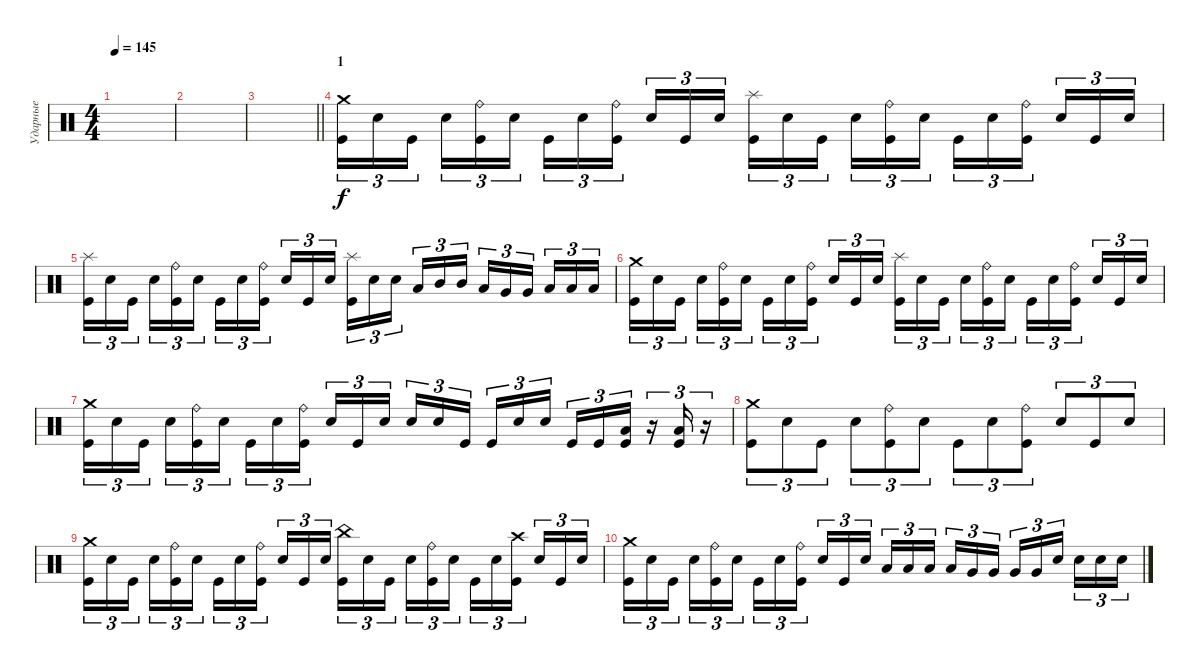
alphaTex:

\track ("Ударные" "Ударные") {instrument percussion}
\staff {score}
\articulation defaults
\ts (4 4)
\tempo 145
\clef neutral
\ks c
|
|
\barLineRight lightlight
|
\section ("" "1")
("Crash medium (hit)" "Kick (hit)").16{tu (3 2)} "Electric Snare (hit)".16{tu (3 2)} "Kick (hit)".16{tu (3 2) beam splitsecondary} "Electric Snare (hit)".16{tu (3 2)} ("Ride (bell)" "Kick (hit)").16{tu (3 2)} "Electric Snare (hit)".16{tu (3 2)} "Kick (hit)".16{tu (3 2)} "Electric Snare (hit)".16{tu (3 2)} ("Ride (bell)" "Kick (hit)").16{tu (3 2) beam splitsecondary} "Electric Snare (hit)".16{tu (3 2)} "Kick (hit)".16{tu (3 2)} "Electric Snare (hit)".16{tu (3 2)} ("Splash (hit)" "Kick (hit)").16{tu (3 2)} "Electric Snare (hit)".16{tu (3 2)} "Kick (hit)".16{tu (3 2) beam splitsecondary} "Electric Snare (hit)".16{tu (3 2)} ("Ride (bell)" "Kick (hit)").16{tu (3 2)} "Electric Snare (hit)".16{tu (3 2)} "Kick (hit)".16{tu (3 2)} "Electric Snare (hit)".16{tu (3 2)} ("Ride (bell)" "Kick (hit)").16{tu (3 2) beam splitsecondary} "Electric Snare (hit)".16{tu (3 2)} "Kick (hit)".16{tu (3 2)} "Electric Snare (hit)".16{tu (3 2)} |
("Splash (hit)" "Kick (hit)").16{tu (3 2)} "Electric Snare (hit)".16{tu (3 2)} "Kick (hit)".16{tu (3 2) beam splitsecondary} "Electric Snare (hit)".16{tu (3 2)} ("Ride (bell)" "Kick (hit)").16{tu (3 2)} "Electric Snare (hit)".16{tu (3 2)} "Kick (hit)".16{tu (3 2)} "Electric Snare (hit)".16{tu (3 2)} ("Ride (bell)" "Kick (hit)").16{tu (3 2) beam splitsecondary} "Electric Snare (hit)".16{tu (3 2)} "Kick (hit)".16{tu (3 2)} "Electric Snare (hit)".16{tu (3 2)} ("Splash (hit)" "Kick (hit)").16{tu (3 2)} "Electric Snare (hit)".16{tu (3 2)} "Electric Snare (hit)".16{tu (3 2) beam splitsecondary} "Low Tom (hit)".16{tu (3 2)} "Mid Tom (hit)".16{tu (3 2)} "Mid Tom (hit)".16{tu (3 2)} "Low Tom (hit)".16{tu (3 2)} "Very Low Tom (hit)".16{tu (3 2)} "Very Low Tom (hit)".16{tu (3 2) beam splitsecondary} "Low Floor Tom (hit)".16{tu (3 2)} "Low Floor Tom (hit)".16{tu (3 2)} "Low Floor Tom (hit)".16{tu (3 2)} |
("Crash medium (hit)" "Kick (hit)").16{tu (3 2)} "Electric Snare (hit)".16{tu (3 2)} "Kick (hit)".16{tu (3 2) beam splitsecondary} "Electric Snare (hit)".16{tu (3 2)} ("Ride (bell)" "Kick (hit)").16{tu (3 2)} "Electric Snare (hit)".16{tu (3 2)} "Kick (hit)".16{tu (3 2)} "Electric Snare (hit)".16{tu (3 2)} ("Ride (bell)" "Kick (hit)").16{tu (3 2) beam splitsecondary} "Electric Snare (hit)".16{tu (3 2)} "Kick (hit)".16{tu (3 2)} "Electric Snare (hit)".16{tu (3 2)} ("Splash (hit)" "Kick (hit)").16{tu (3 2)} "Electric Snare (hit)".16{tu (3 2)} "Kick (hit)".16{tu (3 2) beam splitsecondary} "Electric Snare (hit)".16{tu (3 2)} ("Ride (bell)" "Kick (hit)").16{tu (3 2)} "Electric Snare (hit)".16{tu (3 2)} "Kick (hit)".16{tu (3 2)} "Electric Snare (hit)".16{tu (3 2)} ("Ride (bell)" "Kick (hit)").16{tu (3 2) beam splitsecondary} "Electric Snare (hit)".16{tu (3 2)} "Kick (hit)".16{tu (3 2)} "Electric Snare (hit)".16{tu (3 2)} |
("Crash medium (hit)" "Kick (hit)").16{tu (3 2)} "Electric Snare (hit)".16{tu (3 2)} "Kick (hit)".16{tu (3 2) beam splitsecondary} "Electric Snare (hit)".16{tu (3 2)} ("Ride (bell)" "Kick (hit)").16{tu (3 2)} "Electric Snare (hit)".16{tu (3 2)} "Kick (hit)".16{tu (3 2)} "Electric Snare (hit)".16{tu (3 2)} ("Ride (bell)" "Kick (hit)").16{tu (3 2) beam splitsecondary} "Electric Snare (hit)".16{tu (3 2)} "Kick (hit)".16{tu (3 2)} "Electric Snare (hit)".16{tu (3 2)} "Electric Snare (hit)".16{tu (3 2)} "Electric Snare (hit)".16{tu (3 2)} "Kick (hit)".16{tu (3 2) beam splitsecondary} "Kick (hit)".16{tu (3 2)} "Electric Snare (hit)".16{tu (3 2)} "Electric Snare (hit)".16{tu (3 2)} "Kick (hit)".16{tu (3 2)} "Kick (hit)".16{tu (3 2)} ("Low Floor Tom (hit)" "Kick (hit)").16{tu (3 2)} r.16{tu (3 2)} ("Low Floor Tom (hit)" "Kick (hit)").16{tu (3 2)} r.16{tu (3 2)} |
("Crash medium (hit)" "Kick (hit)").8{tu (3 2)} "Electric Snare (hit)".8{tu (3 2)} "Kick (hit)".8{tu (3 2)} "Electric Snare (hit)".8{tu (3 2)} ("Ride (bell)" "Kick (hit)").8{tu (3 2)} "Electric Snare (hit)".8{tu (3 2)} "Kick (hit)".8{tu (3 2)} "Electric Snare (hit)".8{tu (3 2)} ("Ride (bell)" "Kick (hit)").8{tu (3 2)} "Electric Snare (hit)".8{tu (3 2)} "Kick (hit)".8{tu (3 2)} "Electric Snare (hit)".8{tu (3 2)} |
("Crash medium (hit)" "Kick (hit)").16{tu (3 2)} "Electric Snare (hit)".16{tu (3 2)} "Kick (hit)".16{tu (3 2) beam splitsecondary} "Electric Snare (hit)".16{tu (3 2)} ("Ride (bell)" "Kick (hit)").16{tu (3 2)} "Electric Snare (hit)".16{tu (3 2)} "Kick (hit)".16{tu (3 2)} "Electric Snare (hit)".16{tu (3 2)} ("Ride (bell)" "Kick (hit)").16{tu (3 2) beam splitsecondary} "Electric Snare (hit)".16{tu (3 2)} "Kick (hit)".16{tu (3 2)} "Electric Snare (hit)".16{tu (3 2)} ("China (hit)" "Kick (hit)").16{tu (3 2)} "Electric Snare (hit)".16{tu (3 2)} "Kick (hit)".16{tu (3 2) beam splitsecondary} "Electric Snare (hit)".16{tu (3 2)} ("Ride (bell)" "Kick (hit)").16{tu (3 2)} "Electric Snare (hit)".16{tu (3 2)} "Kick (hit)".16{tu (3 2)} "Electric Snare (hit)".16{tu (3 2)} ("Crash high (hit)" "Kick (hit)").16{tu (3 2) beam splitsecondary} "Electric Snare (hit)".16{tu (3 2)} "Kick (hit)".16{tu (3 2)} "Electric Snare (hit)".16{tu (3 2)} |
("Crash medium (hit)" "Kick (hit)").16{tu (3 2)} "Electric Snare (hit)".16{tu (3 2)} "Kick (hit)".16{tu (3 2) beam splitsecondary} "Electric Snare (hit)".16{tu (3 2)} ("Ride (bell)" "Kick (hit)").16{tu (3 2)} "Electric Snare (hit)".16{tu (3 2)} "Kick (hit)".16{tu (3 2)} "Electric Snare (hit)".16{tu (3 2)} ("Ride (bell)" "Kick (hit)").16{tu (3 2) beam splitsecondary} "Electric Snare (hit)".16{tu (3 2)} "Kick (hit)".16{tu (3 2)} "Electric Snare (hit)".16{tu (3 2)} "Low Tom (hit)".16{tu (3 2)} "Low Tom (hit)".16{tu (3 2)} "Low Tom (hit)".16{tu (3 2) beam splitsecondary} "Low Tom (hit)".16{tu (3 2)} "Very Low Tom (hit)".16{tu (3 2)} "Very Low Tom (hit)".16{tu (3 2)} "Very Low Tom (hit)".16{tu (3 2)} "Very Low Tom (hit)".16{tu (3 2)} "Electric Snare (hit)".16{tu (3 2) beam splitsecondary} "Electric Snare (hit)".16{tu (3 2)} "Electric Snare (hit)".16{tu (3 2)} "Electric Snare (hit)".16{tu (3 2)}
